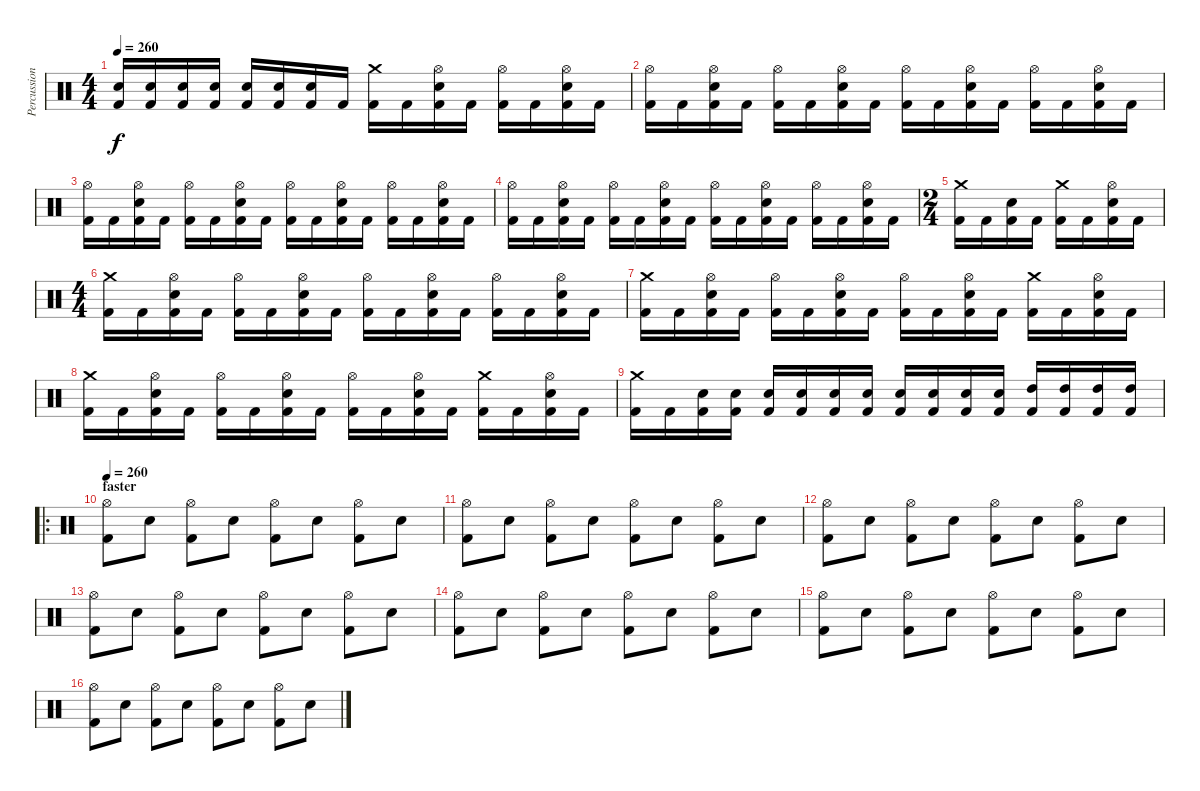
\track ("Percussion" "Percussion") {instrument percussion}
\staff {score}
\articulation defaults
\ts (4 4)
\tempo 260
\clef neutral
\ks c
("Snare (hit) 2" "Kick (hit) 2").16{dy f} ("Snare (hit) 2" "Kick (hit) 2").16 ("Snare (hit) 2" "Kick (hit) 2").16 ("Snare (hit) 2" "Kick (hit) 2").16 ("Snare (hit) 2" "Kick (hit) 2").16 ("Snare (hit) 2" "Kick (hit) 2").16 ("Snare (hit) 2" "Kick (hit) 2").16 "Kick (hit) 2".16 ("Crash medium (hit)" "Kick (hit) 2").16 "Kick (hit) 2".16 ("Hi-Hat (open)" "Snare (hit) 2" "Kick (hit) 2").16 "Kick (hit) 2".16 ("Hi-Hat (open)" "Kick (hit) 2").16 "Kick (hit) 2".16 ("Hi-Hat (open)" "Snare (hit) 2" "Kick (hit) 2").16 "Kick (hit) 2".16 |
("Hi-Hat (open)" "Kick (hit) 2").16 "Kick (hit) 2".16 ("Hi-Hat (open)" "Snare (hit) 2" "Kick (hit) 2").16 "Kick (hit) 2".16 ("Hi-Hat (open)" "Kick (hit) 2").16 "Kick (hit) 2".16 ("Hi-Hat (open)" "Snare (hit) 2" "Kick (hit) 2").16 "Kick (hit) 2".16 ("Hi-Hat (open)" "Kick (hit) 2").16 "Kick (hit) 2".16 ("Hi-Hat (open)" "Snare (hit) 2" "Kick (hit) 2").16 "Kick (hit) 2".16 ("Hi-Hat (open)" "Kick (hit) 2").16 "Kick (hit) 2".16 ("Hi-Hat (open)" "Snare (hit) 2" "Kick (hit) 2").16 "Kick (hit) 2".16 |
("Hi-Hat (open)" "Kick (hit) 2").16 "Kick (hit) 2".16 ("Hi-Hat (open)" "Snare (hit) 2" "Kick (hit) 2").16 "Kick (hit) 2".16 ("Hi-Hat (open)" "Kick (hit) 2").16 "Kick (hit) 2".16 ("Hi-Hat (open)" "Snare (hit) 2" "Kick (hit) 2").16 "Kick (hit) 2".16 ("Hi-Hat (open)" "Kick (hit) 2").16 "Kick (hit) 2".16 ("Hi-Hat (open)" "Snare (hit) 2" "Kick (hit) 2").16 "Kick (hit) 2".16 ("Hi-Hat (open)" "Kick (hit) 2").16 "Kick (hit) 2".16 ("Hi-Hat (open)" "Snare (hit) 2" "Kick (hit) 2").16 "Kick (hit) 2".16 |
("Hi-Hat (open)" "Kick (hit) 2").16 "Kick (hit) 2".16 ("Hi-Hat (open)" "Snare (hit) 2" "Kick (hit) 2").16 "Kick (hit) 2".16 ("Hi-Hat (open)" "Kick (hit) 2").16 "Kick (hit) 2".16 ("Hi-Hat (open)" "Snare (hit) 2" "Kick (hit) 2").16 "Kick (hit) 2".16 ("Hi-Hat (open)" "Kick (hit) 2").16 "Kick (hit) 2".16 ("Hi-Hat (open)" "Snare (hit) 2" "Kick (hit) 2").16 "Kick (hit) 2".16 ("Hi-Hat (open)" "Kick (hit) 2").16 "Kick (hit) 2".16 ("Hi-Hat (open)" "Snare (hit) 2" "Kick (hit) 2").16 "Kick (hit) 2".16 |
\ts (2 4)
("Crash medium (hit)" "Kick (hit) 2").16 "Kick (hit) 2".16 ("Snare (hit) 2" "Kick (hit) 2").16 "Kick (hit) 2".16 ("Crash medium (hit)" "Kick (hit) 2").16 "Kick (hit) 2".16 ("Hi-Hat (open)" "Snare (hit) 2" "Kick (hit) 2").16 "Kick (hit) 2".16 |
\ts (4 4)
("Crash medium (hit)" "Kick (hit) 2").16 "Kick (hit) 2".16 ("Hi-Hat (open)" "Snare (hit) 2" "Kick (hit) 2").16 "Kick (hit) 2".16 ("Hi-Hat (open)" "Kick (hit) 2").16 "Kick (hit) 2".16 ("Hi-Hat (open)" "Snare (hit) 2" "Kick (hit) 2").16 "Kick (hit) 2".16 ("Hi-Hat (open)" "Kick (hit) 2").16 "Kick (hit) 2".16 ("Hi-Hat (open)" "Snare (hit) 2" "Kick (hit) 2").16 "Kick (hit) 2".16 ("Hi-Hat (open)" "Kick (hit) 2").16 "Kick (hit) 2".16 ("Hi-Hat (open)" "Snare (hit) 2" "Kick (hit) 2").16 "Kick (hit) 2".16 |
("Crash medium (hit)" "Kick (hit) 2").16 "Kick (hit) 2".16 ("Hi-Hat (open)" "Snare (hit) 2" "Kick (hit) 2").16 "Kick (hit) 2".16 ("Hi-Hat (open)" "Kick (hit) 2").16 "Kick (hit) 2".16 ("Hi-Hat (open)" "Snare (hit) 2" "Kick (hit) 2").16 "Kick (hit) 2".16 ("Hi-Hat (open)" "Kick (hit) 2").16 "Kick (hit) 2".16 ("Hi-Hat (open)" "Snare (hit) 2" "Kick (hit) 2").16 "Kick (hit) 2".16 ("Crash medium (hit)" "Kick (hit) 2").16 "Kick (hit) 2".16 ("Hi-Hat (open)" "Snare (hit) 2" "Kick (hit) 2").16 "Kick (hit) 2".16 |
("Crash medium (hit)" "Kick (hit) 2").16 "Kick (hit) 2".16 ("Hi-Hat (open)" "Snare (hit) 2" "Kick (hit) 2").16 "Kick (hit) 2".16 ("Hi-Hat (open)" "Kick (hit) 2").16 "Kick (hit) 2".16 ("Hi-Hat (open)" "Snare (hit) 2" "Kick (hit) 2").16 "Kick (hit) 2".16 ("Hi-Hat (open)" "Kick (hit) 2").16 "Kick (hit) 2".16 ("Hi-Hat (open)" "Snare (hit) 2" "Kick (hit) 2").16 "Kick (hit) 2".16 ("Crash medium (hit)" "Kick (hit) 2").16 "Kick (hit) 2".16 ("Hi-Hat (open)" "Snare (hit) 2" "Kick (hit) 2").16 "Kick (hit) 2".16 |
("Crash medium (hit)" "Kick (hit) 2").16 "Kick (hit) 2".16 ("Snare (hit) 2" "Kick (hit) 2").16 ("Snare (hit) 2" "Kick (hit) 2").16 ("Snare (hit) 2" "Kick (hit) 2").16 ("Snare (hit) 2" "Kick (hit) 2").16 ("Snare (hit) 2" "Kick (hit) 2").16 ("Snare (hit) 2" "Kick (hit) 2").16 ("Snare (hit) 2" "Kick (hit) 2").16 ("Snare (hit) 2" "Kick (hit) 2").16 ("Snare (hit) 2" "Kick (hit) 2").16 ("Snare (hit) 2" "Kick (hit) 2").16 ("High Tom (hit)" "Kick (hit) 2").16 ("High Tom (hit)" "Kick (hit) 2").16 ("High Tom (hit)" "Kick (hit) 2").16 ("High Tom (hit)" "Kick (hit) 2").16 |
\ro
\section ("" "faster")
\tempo 260
("Hi-Hat (open)" "Kick (hit) 2").8 "Snare (hit) 2".8 ("Hi-Hat (open)" "Kick (hit) 2").8 "Snare (hit) 2".8 ("Hi-Hat (open)" "Kick (hit) 2").8 "Snare (hit) 2".8 ("Hi-Hat (open)" "Kick (hit) 2").8 "Snare (hit) 2".8 |
("Hi-Hat (open)" "Kick (hit) 2").8 "Snare (hit) 2".8 ("Hi-Hat (open)" "Kick (hit) 2").8 "Snare (hit) 2".8 ("Hi-Hat (open)" "Kick (hit) 2").8 "Snare (hit) 2".8 ("Hi-Hat (open)" "Kick (hit) 2").8 "Snare (hit) 2".8 |
("Hi-Hat (open)" "Kick (hit) 2").8 "Snare (hit) 2".8 ("Hi-Hat (open)" "Kick (hit) 2").8 "Snare (hit) 2".8 ("Hi-Hat (open)" "Kick (hit) 2").8 "Snare (hit) 2".8 ("Hi-Hat (open)" "Kick (hit) 2").8 "Snare (hit) 2".8 |
("Hi-Hat (open)" "Kick (hit) 2").8 "Snare (hit) 2".8 ("Hi-Hat (open)" "Kick (hit) 2").8 "Snare (hit) 2".8 ("Hi-Hat (open)" "Kick (hit) 2").8 "Snare (hit) 2".8 ("Hi-Hat (open)" "Kick (hit) 2").8 "Snare (hit) 2".8 |
("Hi-Hat (open)" "Kick (hit) 2").8 "Snare (hit) 2".8 ("Hi-Hat (open)" "Kick (hit) 2").8 "Snare (hit) 2".8 ("Hi-Hat (open)" "Kick (hit) 2").8 "Snare (hit) 2".8 ("Hi-Hat (open)" "Kick (hit) 2").8 "Snare (hit) 2".8 |
("Hi-Hat (open)" "Kick (hit) 2").8 "Snare (hit) 2".8 ("Hi-Hat (open)" "Kick (hit) 2").8 "Snare (hit) 2".8 ("Hi-Hat (open)" "Kick (hit) 2").8 "Snare (hit) 2".8 ("Hi-Hat (open)" "Kick (hit) 2").8 "Snare (hit) 2".8 |
("Hi-Hat (open)" "Kick (hit) 2").8 "Snare (hit) 2".8 ("Hi-Hat (open)" "Kick (hit) 2").8 "Snare (hit) 2".8 ("Hi-Hat (open)" "Kick (hit) 2").8 "Snare (hit) 2".8 ("Hi-Hat (open)" "Kick (hit) 2").8 "Snare (hit) 2".8
